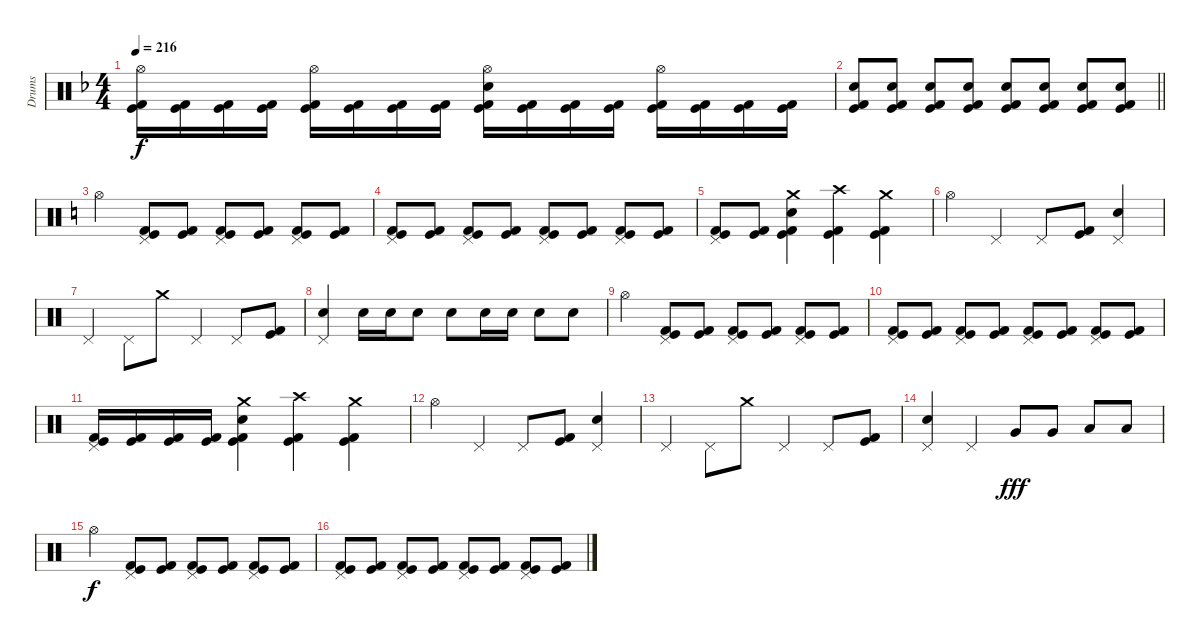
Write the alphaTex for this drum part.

\track ("Drums" "Drums") {instrument percussion}
\staff {score}
\articulation defaults
\ts (4 4)
\tempo 216
\clef neutral
\ks f
("Hi-Hat (open)" "Kick (hit)" "Kick (hit) 2").16{dy f} ("Kick (hit)" "Kick (hit) 2").16 ("Kick (hit)" "Kick (hit) 2").16 ("Kick (hit)" "Kick (hit) 2").16 ("Hi-Hat (open)" "Kick (hit)" "Kick (hit) 2").16 ("Kick (hit)" "Kick (hit) 2").16 ("Kick (hit)" "Kick (hit) 2").16 ("Kick (hit)" "Kick (hit) 2").16 ("Hi-Hat (open)" "Electric Snare (hit)" "Kick (hit)" "Kick (hit) 2").16 ("Kick (hit)" "Kick (hit) 2").16 ("Kick (hit)" "Kick (hit) 2").16 ("Kick (hit)" "Kick (hit) 2").16 ("Hi-Hat (open)" "Kick (hit)" "Kick (hit) 2").16 ("Kick (hit)" "Kick (hit) 2").16 ("Kick (hit)" "Kick (hit) 2").16 ("Kick (hit)" "Kick (hit) 2").16 |
\barLineRight lightlight
("Electric Snare (hit)" "Kick (hit)" "Kick (hit) 2").8 ("Electric Snare (hit)" "Kick (hit)" "Kick (hit) 2").8 ("Electric Snare (hit)" "Kick (hit)" "Kick (hit) 2").8 ("Electric Snare (hit)" "Kick (hit)" "Kick (hit) 2").8 ("Electric Snare (hit)" "Kick (hit)" "Kick (hit) 2").8 ("Electric Snare (hit)" "Kick (hit)" "Kick (hit) 2").8 ("Electric Snare (hit)" "Kick (hit)" "Kick (hit) 2").8 ("Electric Snare (hit)" "Kick (hit)" "Kick (hit) 2").8 |
\section ("" "")
\ks c "Hi-Hat (open)".4
("Pedal Hi-Hat (hit)" "Kick (hit)" "Kick (hit) 2").8 ("Kick (hit)" "Kick (hit) 2").8 ("Pedal Hi-Hat (hit)" "Kick (hit)" "Kick (hit) 2").8 ("Kick (hit)" "Kick (hit) 2").8 ("Pedal Hi-Hat (hit)" "Kick (hit)" "Kick (hit) 2").8 ("Kick (hit)" "Kick (hit) 2").8 |
("Pedal Hi-Hat (hit)" "Kick (hit)" "Kick (hit) 2").8 ("Kick (hit)" "Kick (hit) 2").8 ("Pedal Hi-Hat (hit)" "Kick (hit)" "Kick (hit) 2").8 ("Kick (hit)" "Kick (hit) 2").8 ("Pedal Hi-Hat (hit)" "Kick (hit)" "Kick (hit) 2").8 ("Kick (hit)" "Kick (hit) 2").8 ("Pedal Hi-Hat (hit)" "Kick (hit)" "Kick (hit) 2").8 ("Kick (hit)" "Kick (hit) 2").8 |
("Pedal Hi-Hat (hit)" "Kick (hit)" "Kick (hit) 2").8 ("Kick (hit)" "Kick (hit) 2").8 ("Crash medium (hit)" "Electric Snare (hit)" "Kick (hit)" "Kick (hit) 2").4 ("Crash high (hit)" "Kick (hit)" "Kick (hit) 2").4 ("Crash medium (hit)" "Kick (hit)" "Kick (hit) 2").4 |
"Hi-Hat (open)".4 "Pedal Hi-Hat (hit)".4 "Pedal Hi-Hat (hit)".8 ("Kick (hit)" "Kick (hit) 2").8 ("Pedal Hi-Hat (hit)" "Electric Snare (hit)").4 |
"Pedal Hi-Hat (hit)".4 "Pedal Hi-Hat (hit)".8 "Crash medium (hit)".8 "Pedal Hi-Hat (hit)".4 "Pedal Hi-Hat (hit)".8 ("Kick (hit)" "Kick (hit) 2").8 |
("Pedal Hi-Hat (hit)" "Electric Snare (hit)").4 "Electric Snare (hit)".16 "Electric Snare (hit)".16 "Electric Snare (hit)".8 "Electric Snare (hit)".8 "Electric Snare (hit)".16 "Electric Snare (hit)".16 "Electric Snare (hit)".8 "Electric Snare (hit)".8 |
"Hi-Hat (open)".4 ("Pedal Hi-Hat (hit)" "Kick (hit)" "Kick (hit) 2").8 ("Kick (hit)" "Kick (hit) 2").8 ("Pedal Hi-Hat (hit)" "Kick (hit)" "Kick (hit) 2").8 ("Kick (hit)" "Kick (hit) 2").8 ("Pedal Hi-Hat (hit)" "Kick (hit)" "Kick (hit) 2").8 ("Kick (hit)" "Kick (hit) 2").8 |
("Pedal Hi-Hat (hit)" "Kick (hit)" "Kick (hit) 2").8 ("Kick (hit)" "Kick (hit) 2").8 ("Pedal Hi-Hat (hit)" "Kick (hit)" "Kick (hit) 2").8 ("Kick (hit)" "Kick (hit) 2").8 ("Pedal Hi-Hat (hit)" "Kick (hit)" "Kick (hit) 2").8 ("Kick (hit)" "Kick (hit) 2").8 ("Pedal Hi-Hat (hit)" "Kick (hit)" "Kick (hit) 2").8 ("Kick (hit)" "Kick (hit) 2").8 |
("Pedal Hi-Hat (hit)" "Kick (hit)" "Kick (hit) 2").16 ("Kick (hit)" "Kick (hit) 2").16 ("Kick (hit)" "Kick (hit) 2").16 ("Kick (hit)" "Kick (hit) 2").16 ("Crash medium (hit)" "Electric Snare (hit)" "Kick (hit)" "Kick (hit) 2").4 ("Crash high (hit)" "Kick (hit)" "Kick (hit) 2").4 ("Crash medium (hit)" "Kick (hit)" "Kick (hit) 2").4 |
"Hi-Hat (open)".4 "Pedal Hi-Hat (hit)".4 "Pedal Hi-Hat (hit)".8 ("Kick (hit)" "Kick (hit) 2").8 ("Pedal Hi-Hat (hit)" "Electric Snare (hit)").4 |
"Pedal Hi-Hat (hit)".4 "Pedal Hi-Hat (hit)".8 "Crash medium (hit)".8 "Pedal Hi-Hat (hit)".4 "Pedal Hi-Hat (hit)".8 ("Kick (hit)" "Kick (hit) 2").8 |
("Pedal Hi-Hat (hit)" "Electric Snare (hit)").4 "Pedal Hi-Hat (hit)".4 "Very Low Tom (hit)".8{dy fff} "Very Low Tom (hit)".8 "Low Floor Tom (hit)".8 "Low Floor Tom (hit)".8 |
"Hi-Hat (open)".4{dy f} ("Pedal Hi-Hat (hit)" "Kick (hit)" "Kick (hit) 2").8 ("Kick (hit)" "Kick (hit) 2").8 ("Pedal Hi-Hat (hit)" "Kick (hit)" "Kick (hit) 2").8 ("Kick (hit)" "Kick (hit) 2").8 ("Pedal Hi-Hat (hit)" "Kick (hit)" "Kick (hit) 2").8 ("Kick (hit)" "Kick (hit) 2").8 |
("Pedal Hi-Hat (hit)" "Kick (hit)" "Kick (hit) 2").8 ("Kick (hit)" "Kick (hit) 2").8 ("Pedal Hi-Hat (hit)" "Kick (hit)" "Kick (hit) 2").8 ("Kick (hit)" "Kick (hit) 2").8 ("Pedal Hi-Hat (hit)" "Kick (hit)" "Kick (hit) 2").8 ("Kick (hit)" "Kick (hit) 2").8 ("Pedal Hi-Hat (hit)" "Kick (hit)" "Kick (hit) 2").8 ("Kick (hit)" "Kick (hit) 2").8
